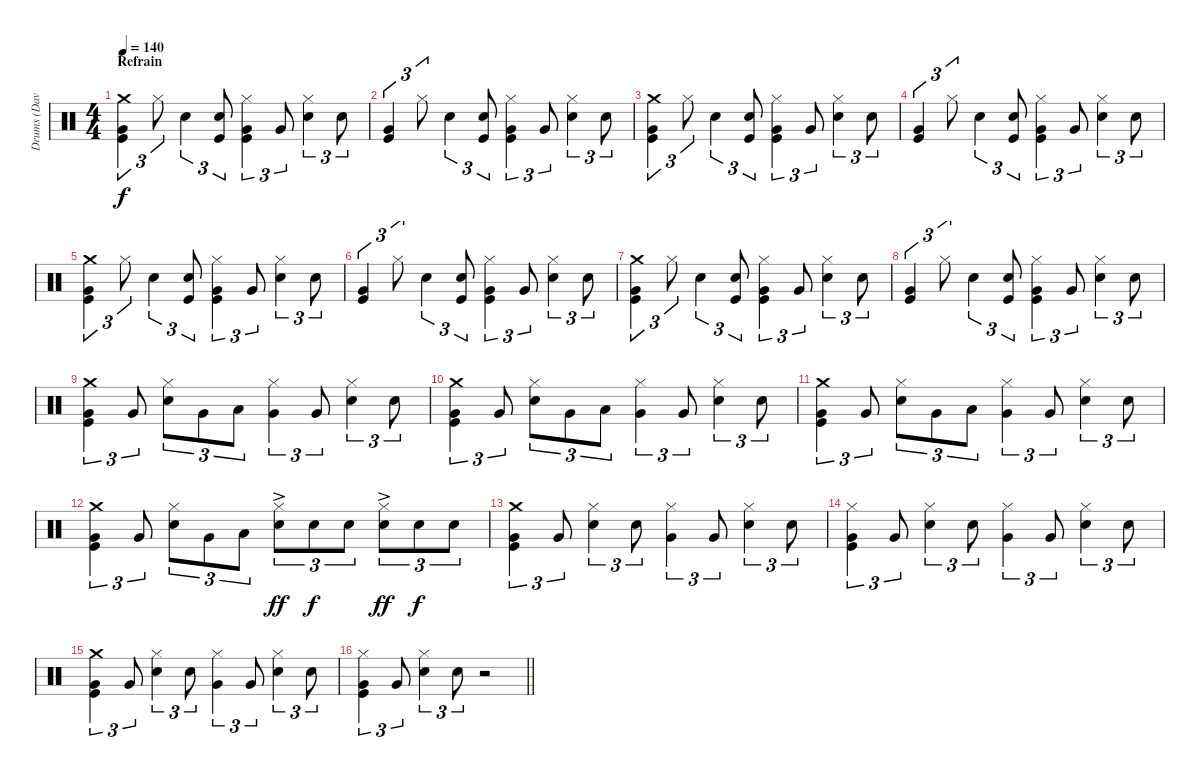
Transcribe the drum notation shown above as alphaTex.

\track ("Drums (Dave Atkins)" "Drums (Dav") {instrument percussion}
\staff {score}
\articulation defaults
\ts (4 4)
\section ("" "Refrain")
\tempo 140
\clef neutral
\ks c
("Crash medium (hit)" "Very Low Tom (hit)" "Kick (hit)").4{tu (3 2) dy f} "Hi-Hat (closed)".8{tu (3 2)} "Snare (hit) 2".4{tu (3 2)} ("Snare (hit) 2" "Kick (hit)").8{tu (3 2)} ("Hi-Hat (closed)" "Very Low Tom (hit)" "Kick (hit)").4{tu (3 2)} "Very Low Tom (hit)".8{tu (3 2)} ("Hi-Hat (closed)" "Snare (hit) 2").4{tu (3 2)} "Snare (hit) 2".8{tu (3 2)} |
("Very Low Tom (hit)" "Kick (hit)").4{tu (3 2)} "Hi-Hat (closed)".8{tu (3 2)} "Snare (hit) 2".4{tu (3 2)} ("Snare (hit) 2" "Kick (hit)").8{tu (3 2)} ("Hi-Hat (closed)" "Very Low Tom (hit)" "Kick (hit)").4{tu (3 2)} "Very Low Tom (hit)".8{tu (3 2)} ("Hi-Hat (closed)" "Snare (hit) 2").4{tu (3 2)} "Snare (hit) 2".8{tu (3 2)} |
("Crash medium (hit)" "Very Low Tom (hit)" "Kick (hit)").4{tu (3 2)} "Hi-Hat (closed)".8{tu (3 2)} "Snare (hit) 2".4{tu (3 2)} ("Snare (hit) 2" "Kick (hit)").8{tu (3 2)} ("Hi-Hat (closed)" "Very Low Tom (hit)" "Kick (hit)").4{tu (3 2)} "Very Low Tom (hit)".8{tu (3 2)} ("Hi-Hat (closed)" "Snare (hit) 2").4{tu (3 2)} "Snare (hit) 2".8{tu (3 2)} |
("Very Low Tom (hit)" "Kick (hit)").4{tu (3 2)} "Hi-Hat (closed)".8{tu (3 2)} "Snare (hit) 2".4{tu (3 2)} ("Snare (hit) 2" "Kick (hit)").8{tu (3 2)} ("Hi-Hat (closed)" "Very Low Tom (hit)" "Kick (hit)").4{tu (3 2)} "Very Low Tom (hit)".8{tu (3 2)} ("Hi-Hat (closed)" "Snare (hit) 2").4{tu (3 2)} "Snare (hit) 2".8{tu (3 2)} |
("Crash medium (hit)" "Very Low Tom (hit)" "Kick (hit)").4{tu (3 2)} "Hi-Hat (closed)".8{tu (3 2)} "Snare (hit) 2".4{tu (3 2)} ("Snare (hit) 2" "Kick (hit)").8{tu (3 2)} ("Hi-Hat (closed)" "Very Low Tom (hit)" "Kick (hit)").4{tu (3 2)} "Very Low Tom (hit)".8{tu (3 2)} ("Hi-Hat (closed)" "Snare (hit) 2").4{tu (3 2)} "Snare (hit) 2".8{tu (3 2)} |
("Very Low Tom (hit)" "Kick (hit)").4{tu (3 2)} "Hi-Hat (closed)".8{tu (3 2)} "Snare (hit) 2".4{tu (3 2)} ("Snare (hit) 2" "Kick (hit)").8{tu (3 2)} ("Hi-Hat (closed)" "Very Low Tom (hit)" "Kick (hit)").4{tu (3 2)} "Very Low Tom (hit)".8{tu (3 2)} ("Hi-Hat (closed)" "Snare (hit) 2").4{tu (3 2)} "Snare (hit) 2".8{tu (3 2)} |
("Crash medium (hit)" "Very Low Tom (hit)" "Kick (hit)").4{tu (3 2)} "Hi-Hat (closed)".8{tu (3 2)} "Snare (hit) 2".4{tu (3 2)} ("Snare (hit) 2" "Kick (hit)").8{tu (3 2)} ("Hi-Hat (closed)" "Very Low Tom (hit)" "Kick (hit)").4{tu (3 2)} "Very Low Tom (hit)".8{tu (3 2)} ("Hi-Hat (closed)" "Snare (hit) 2").4{tu (3 2)} "Snare (hit) 2".8{tu (3 2)} |
("Very Low Tom (hit)" "Kick (hit)").4{tu (3 2)} "Hi-Hat (closed)".8{tu (3 2)} "Snare (hit) 2".4{tu (3 2)} ("Snare (hit) 2" "Kick (hit)").8{tu (3 2)} ("Hi-Hat (closed)" "Very Low Tom (hit)" "Kick (hit)").4{tu (3 2)} "Very Low Tom (hit)".8{tu (3 2)} ("Hi-Hat (closed)" "Snare (hit) 2").4{tu (3 2)} "Snare (hit) 2".8{tu (3 2)} |
("Crash medium (hit)" "Very Low Tom (hit)" "Kick (hit)").4{tu (3 2)} "Very Low Tom (hit)".8{tu (3 2)} ("Hi-Hat (closed)" "Snare (hit) 2").8{tu (3 2)} "Very Low Tom (hit)".8{tu (3 2)} "Low Floor Tom (hit)".8{tu (3 2)} ("Hi-Hat (closed)" "Very Low Tom (hit)").4{tu (3 2)} "Very Low Tom (hit)".8{tu (3 2)} ("Hi-Hat (closed)" "Snare (hit) 2").4{tu (3 2)} "Snare (hit) 2".8{tu (3 2)} |
("Crash medium (hit)" "Very Low Tom (hit)" "Kick (hit)").4{tu (3 2)} "Very Low Tom (hit)".8{tu (3 2)} ("Hi-Hat (closed)" "Snare (hit) 2").8{tu (3 2)} "Very Low Tom (hit)".8{tu (3 2)} "Low Floor Tom (hit)".8{tu (3 2)} ("Hi-Hat (closed)" "Very Low Tom (hit)").4{tu (3 2)} "Very Low Tom (hit)".8{tu (3 2)} ("Hi-Hat (closed)" "Snare (hit) 2").4{tu (3 2)} "Snare (hit) 2".8{tu (3 2)} |
("Crash medium (hit)" "Very Low Tom (hit)" "Kick (hit)").4{tu (3 2)} "Very Low Tom (hit)".8{tu (3 2)} ("Hi-Hat (closed)" "Snare (hit) 2").8{tu (3 2)} "Very Low Tom (hit)".8{tu (3 2)} "Low Floor Tom (hit)".8{tu (3 2)} ("Hi-Hat (closed)" "Very Low Tom (hit)").4{tu (3 2)} "Very Low Tom (hit)".8{tu (3 2)} ("Hi-Hat (closed)" "Snare (hit) 2").4{tu (3 2)} "Snare (hit) 2".8{tu (3 2)} |
("Crash medium (hit)" "Very Low Tom (hit)" "Kick (hit)").4{tu (3 2)} "Very Low Tom (hit)".8{tu (3 2)} ("Hi-Hat (closed)" "Snare (hit) 2").8{tu (3 2)} "Very Low Tom (hit)".8{tu (3 2)} "Low Floor Tom (hit)".8{tu (3 2)} ("Hi-Hat (closed)" "Snare (hit) 2"{ac}).8{tu (3 2) dy ff} "Snare (hit) 2".8{tu (3 2) dy f} "Snare (hit) 2".8{tu (3 2)} ("Hi-Hat (closed)" "Snare (hit) 2"{ac}).8{tu (3 2) dy ff} "Snare (hit) 2".8{tu (3 2) dy f} "Snare (hit) 2".8{tu (3 2)} |
("Crash medium (hit)" "Very Low Tom (hit)" "Kick (hit)").4{tu (3 2)} "Very Low Tom (hit)".8{tu (3 2)} ("Hi-Hat (closed)" "Snare (hit) 2").4{tu (3 2)} "Snare (hit) 2".8{tu (3 2)} ("Hi-Hat (closed)" "Very Low Tom (hit)").4{tu (3 2)} "Very Low Tom (hit)".8{tu (3 2)} ("Hi-Hat (closed)" "Snare (hit) 2").4{tu (3 2)} "Snare (hit) 2".8{tu (3 2)} |
("Hi-Hat (closed)" "Very Low Tom (hit)" "Kick (hit)").4{tu (3 2)} "Very Low Tom (hit)".8{tu (3 2)} ("Hi-Hat (closed)" "Snare (hit) 2").4{tu (3 2)} "Snare (hit) 2".8{tu (3 2)} ("Hi-Hat (closed)" "Very Low Tom (hit)").4{tu (3 2)} "Very Low Tom (hit)".8{tu (3 2)} ("Hi-Hat (closed)" "Snare (hit) 2").4{tu (3 2)} "Snare (hit) 2".8{tu (3 2)} |
("Crash medium (hit)" "Very Low Tom (hit)" "Kick (hit)").4{tu (3 2)} "Very Low Tom (hit)".8{tu (3 2)} ("Hi-Hat (closed)" "Snare (hit) 2").4{tu (3 2)} "Snare (hit) 2".8{tu (3 2)} ("Hi-Hat (closed)" "Very Low Tom (hit)").4{tu (3 2)} "Very Low Tom (hit)".8{tu (3 2)} ("Hi-Hat (closed)" "Snare (hit) 2").4{tu (3 2)} "Snare (hit) 2".8{tu (3 2)} |
\barLineRight lightlight
("Hi-Hat (closed)" "Very Low Tom (hit)" "Kick (hit)").4{tu (3 2)} "Very Low Tom (hit)".8{tu (3 2)} ("Hi-Hat (closed)" "Snare (hit) 2").4{tu (3 2)} "Snare (hit) 2".8{tu (3 2)} r.2
